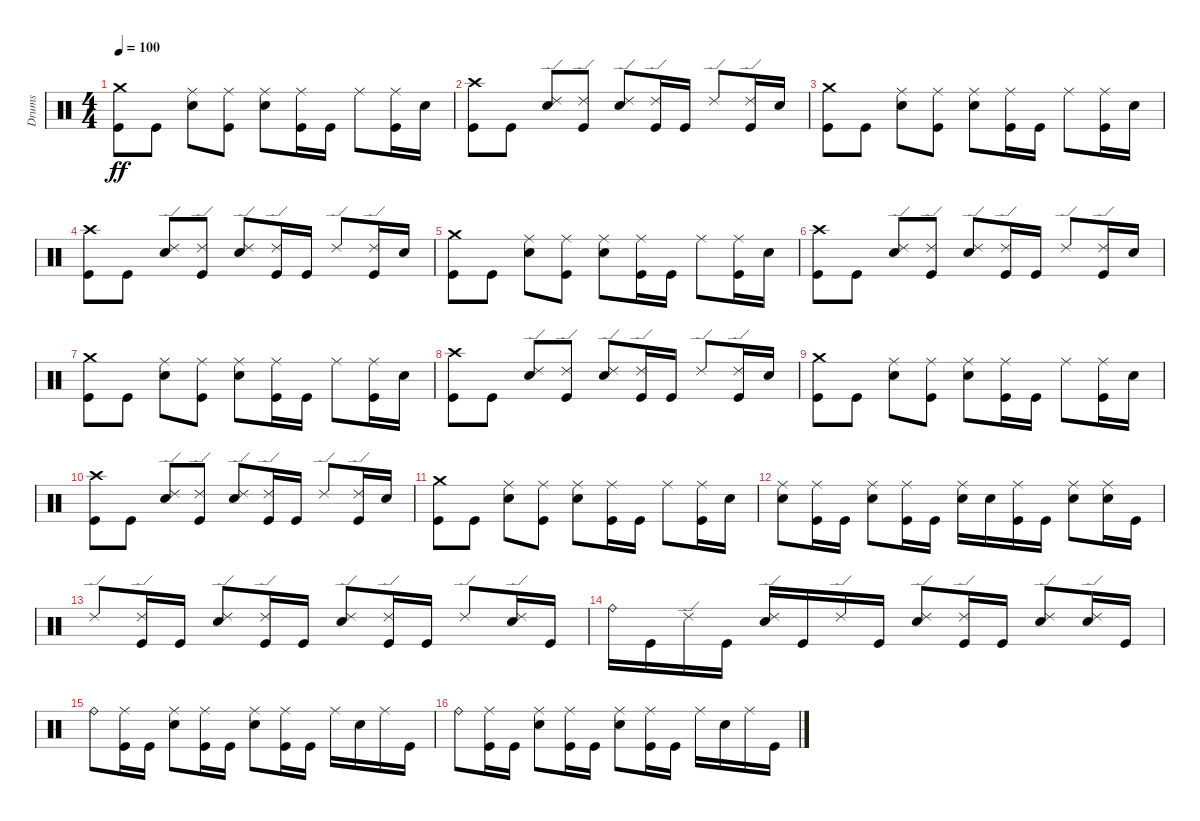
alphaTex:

\track ("Drums" "Drums") {instrument percussion}
\staff {score}
\articulation defaults
\ts (4 4)
\tempo 100
\clef neutral
\ks c
("Crash medium (hit)" "Kick (hit)").8{dy ff} "Kick (hit)".8 ("Ride (middle)" "Electric Snare (hit)").8 ("Ride (middle)" "Kick (hit)").8 ("Ride (middle)" "Electric Snare (hit)").8 ("Ride (middle)" "Kick (hit)").16 "Kick (hit)".16 "Ride (middle)".8 ("Ride (middle)" "Kick (hit)").16 "Electric Snare (hit)".16 |
("Crash high (hit)" "Kick (hit)").8 "Kick (hit)".8 ("Ride (edge) 2" "Electric Snare (hit)").8 ("Ride (edge) 2" "Kick (hit)").8 ("Ride (edge) 2" "Electric Snare (hit)").8 ("Ride (edge) 2" "Kick (hit)").16 "Kick (hit)".16 "Ride (edge) 2".8 ("Ride (edge) 2" "Kick (hit)").16 "Electric Snare (hit)".16 |
("Crash medium (hit)" "Kick (hit)").8 "Kick (hit)".8 ("Ride (middle)" "Electric Snare (hit)").8 ("Ride (middle)" "Kick (hit)").8 ("Ride (middle)" "Electric Snare (hit)").8 ("Ride (middle)" "Kick (hit)").16 "Kick (hit)".16 "Ride (middle)".8 ("Ride (middle)" "Kick (hit)").16 "Electric Snare (hit)".16 |
("Crash high (hit)" "Kick (hit)").8 "Kick (hit)".8 ("Ride (edge) 2" "Electric Snare (hit)").8 ("Ride (edge) 2" "Kick (hit)").8 ("Ride (edge) 2" "Electric Snare (hit)").8 ("Ride (edge) 2" "Kick (hit)").16 "Kick (hit)".16 "Ride (edge) 2".8 ("Ride (edge) 2" "Kick (hit)").16 "Electric Snare (hit)".16 |
("Crash medium (hit)" "Kick (hit)").8 "Kick (hit)".8 ("Ride (middle)" "Electric Snare (hit)").8 ("Ride (middle)" "Kick (hit)").8 ("Ride (middle)" "Electric Snare (hit)").8 ("Ride (middle)" "Kick (hit)").16 "Kick (hit)".16 "Ride (middle)".8 ("Ride (middle)" "Kick (hit)").16 "Electric Snare (hit)".16 |
("Crash high (hit)" "Kick (hit)").8 "Kick (hit)".8 ("Ride (edge) 2" "Electric Snare (hit)").8 ("Ride (edge) 2" "Kick (hit)").8 ("Ride (edge) 2" "Electric Snare (hit)").8 ("Ride (edge) 2" "Kick (hit)").16 "Kick (hit)".16 "Ride (edge) 2".8 ("Ride (edge) 2" "Kick (hit)").16 "Electric Snare (hit)".16 |
("Crash medium (hit)" "Kick (hit)").8 "Kick (hit)".8 ("Ride (middle)" "Electric Snare (hit)").8 ("Ride (middle)" "Kick (hit)").8 ("Ride (middle)" "Electric Snare (hit)").8 ("Ride (middle)" "Kick (hit)").16 "Kick (hit)".16 "Ride (middle)".8 ("Ride (middle)" "Kick (hit)").16 "Electric Snare (hit)".16 |
("Crash high (hit)" "Kick (hit)").8 "Kick (hit)".8 ("Ride (edge) 2" "Electric Snare (hit)").8 ("Ride (edge) 2" "Kick (hit)").8 ("Ride (edge) 2" "Electric Snare (hit)").8 ("Ride (edge) 2" "Kick (hit)").16 "Kick (hit)".16 "Ride (edge) 2".8 ("Ride (edge) 2" "Kick (hit)").16 "Electric Snare (hit)".16 |
("Crash medium (hit)" "Kick (hit)").8 "Kick (hit)".8 ("Ride (middle)" "Electric Snare (hit)").8 ("Ride (middle)" "Kick (hit)").8 ("Ride (middle)" "Electric Snare (hit)").8 ("Ride (middle)" "Kick (hit)").16 "Kick (hit)".16 "Ride (middle)".8 ("Ride (middle)" "Kick (hit)").16 "Electric Snare (hit)".16 |
("Crash high (hit)" "Kick (hit)").8 "Kick (hit)".8 ("Ride (edge) 2" "Electric Snare (hit)").8 ("Ride (edge) 2" "Kick (hit)").8 ("Ride (edge) 2" "Electric Snare (hit)").8 ("Ride (edge) 2" "Kick (hit)").16 "Kick (hit)".16 "Ride (edge) 2".8 ("Ride (edge) 2" "Kick (hit)").16 "Electric Snare (hit)".16 |
("Crash medium (hit)" "Kick (hit)").8 "Kick (hit)".8 ("Ride (middle)" "Electric Snare (hit)").8 ("Ride (middle)" "Kick (hit)").8 ("Ride (middle)" "Electric Snare (hit)").8 ("Ride (middle)" "Kick (hit)").16 "Kick (hit)".16 "Ride (middle)".8 ("Ride (middle)" "Kick (hit)").16 "Electric Snare (hit)".16 |
("Ride (middle)" "Electric Snare (hit)").8 ("Ride (middle)" "Kick (hit)").16 "Kick (hit)".16 ("Ride (middle)" "Electric Snare (hit)").8 ("Ride (middle)" "Kick (hit)").16 "Kick (hit)".16 ("Ride (middle)" "Electric Snare (hit)").16 "Electric Snare (hit)".16 ("Ride (middle)" "Kick (hit)").16 "Kick (hit)".16 ("Ride (middle)" "Electric Snare (hit)").8 ("Ride (middle)" "Electric Snare (hit)").16 "Kick (hit)".16 |
"Ride (edge) 2".8 ("Ride (edge) 2" "Kick (hit)").16 "Kick (hit)".16 ("Ride (edge) 2" "Electric Snare (hit)").8 ("Ride (edge) 2" "Kick (hit)").16 "Kick (hit)".16 ("Ride (edge) 2" "Electric Snare (hit)").8 ("Ride (edge) 2" "Kick (hit)").16 "Kick (hit)".16 "Ride (edge) 2".8 ("Ride (edge) 2" "Electric Snare (hit)").16 "Kick (hit)".16 |
"Ride (bell)".16 "Kick (hit)".16 "Ride (edge) 2".16 "Kick (hit)".16 ("Ride (edge) 2" "Electric Snare (hit)").16 "Kick (hit)".16 "Ride (edge) 2".16 "Kick (hit)".16 ("Ride (edge) 2" "Electric Snare (hit)").8 ("Ride (edge) 2" "Kick (hit)").16 "Kick (hit)".16 ("Ride (edge) 2" "Electric Snare (hit)").8 ("Ride (edge) 2" "Electric Snare (hit)").16 "Kick (hit)".16 |
"Ride (bell)".8 ("Ride (middle)" "Kick (hit)").16 "Kick (hit)".16 ("Ride (middle)" "Electric Snare (hit)").8 ("Ride (middle)" "Kick (hit)").16 "Kick (hit)".16 ("Ride (middle)" "Electric Snare (hit)").8 ("Ride (middle)" "Kick (hit)").16 "Kick (hit)".16 "Ride (middle)".16 "Electric Snare (hit)".16 "Ride (middle)".16 "Kick (hit)".16 |
"Ride (bell)".8 ("Ride (middle)" "Kick (hit)").16 "Kick (hit)".16 ("Ride (middle)" "Electric Snare (hit)").8 ("Ride (middle)" "Kick (hit)").16 "Kick (hit)".16 ("Ride (middle)" "Electric Snare (hit)").8 ("Ride (middle)" "Kick (hit)").16 "Kick (hit)".16 "Ride (middle)".16 "Electric Snare (hit)".16 "Ride (middle)".16 "Kick (hit)".16
